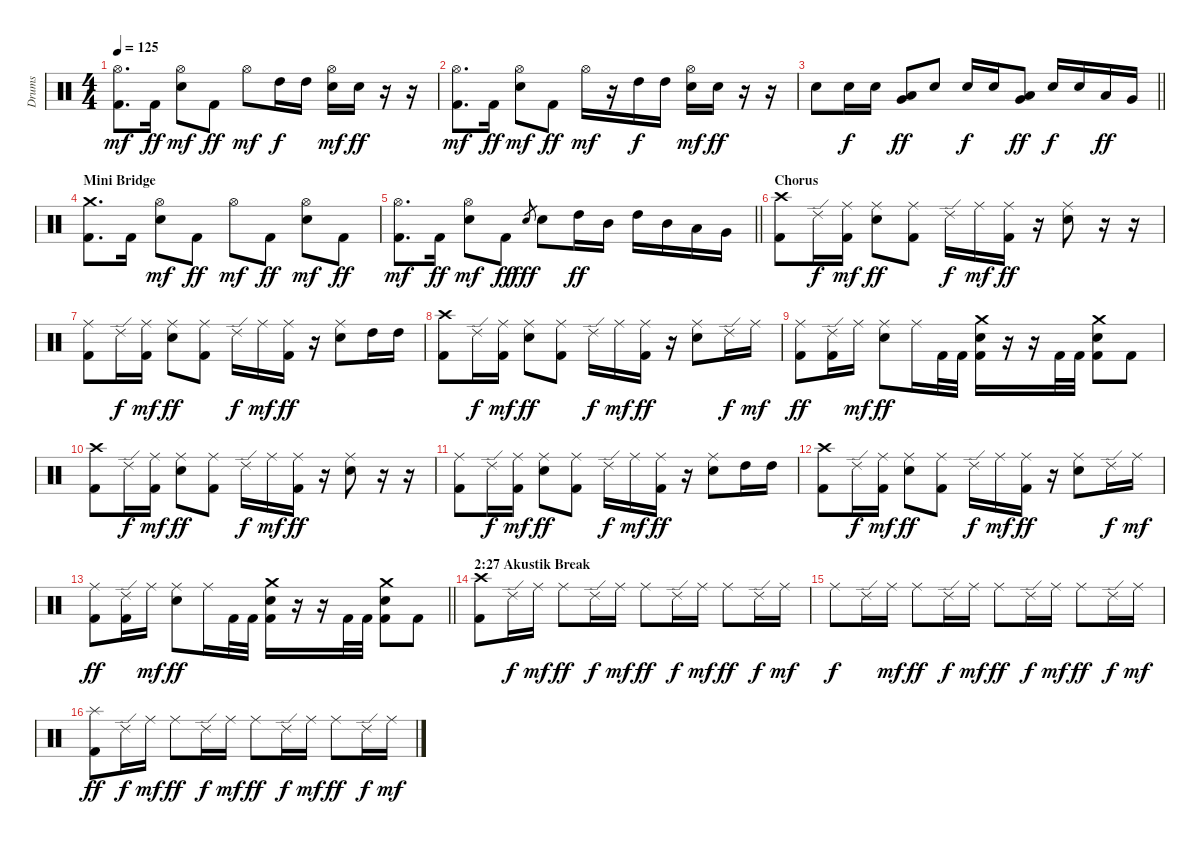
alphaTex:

\track ("Drums" "Drums") {instrument percussion}
\staff {score}
\articulation defaults
\ts (4 4)
\tempo 125
\clef neutral
\ks c
("Kick (hit) 2" "Hi-Hat (open)").8{d dy mf} "Kick (hit) 2".16{dy ff} ("Electric Snare (hit)" "Hi-Hat (open)").8{dy mf} "Kick (hit) 2".8{dy ff} "Hi-Hat (open)".8{dy mf} "High Tom (hit)".16{dy f} "High Tom (hit)".16 ("Electric Snare (hit)" "Hi-Hat (open)").16{dy mf} "Electric Snare (hit)".16{dy ff} r.16 r.16 |
("Kick (hit) 2" "Hi-Hat (open)").8{d dy mf} "Kick (hit) 2".16{dy ff} ("Electric Snare (hit)" "Hi-Hat (open)").8{dy mf} "Kick (hit) 2".8{dy ff} "Hi-Hat (open)".16{dy mf} r.16 "High Tom (hit)".16{dy f} "High Tom (hit)".16 ("Electric Snare (hit)" "Hi-Hat (open)").16{dy mf} "Electric Snare (hit)".16{dy ff} r.16 r.16 |
\barLineRight lightlight "Electric Snare (hit)".8 "Electric Snare (hit)".16{dy f} "Electric Snare (hit)".16
("Low Tom (hit)" "Very Low Tom (hit)").8{dy ff} "Electric Snare (hit)".8 "Electric Snare (hit)".16{dy f} "Electric Snare (hit)".16 ("Low Tom (hit)" "Very Low Tom (hit)").8{dy ff} "Electric Snare (hit)".16{dy f} "Electric Snare (hit)".16 "Low Tom (hit)".16{dy ff} "Very Low Tom (hit)".16 |
\section ("" "Mini Bridge")
("Kick (hit) 2" "Crash medium (hit)").8{d} "Kick (hit) 2".16 ("Electric Snare (hit)" "Hi-Hat (open)").8{dy mf} "Kick (hit) 2".8{dy ff} "Hi-Hat (open)".8{dy mf} "Kick (hit) 2".8{dy ff} ("Electric Snare (hit)" "Hi-Hat (open)").8{dy mf} "Kick (hit) 2".8{dy ff} |
\barLineRight lightlight
("Kick (hit) 2" "Hi-Hat (open)").8{d dy mf} "Kick (hit) 2".16{dy ff} ("Electric Snare (hit)" "Hi-Hat (open)").8{dy mf} "Kick (hit) 2".8{dy ff} "Electric Snare (hit)".8{gr dy fff} "Electric Snare (hit)".8 "High Tom (hit)".16{dy ff} "Mid Tom (hit)".16 "High Tom (hit)".16 "Mid Tom (hit)".16 "Low Tom (hit)".16 "Very Low Tom (hit)".16 |
\section ("" "Chorus")
("Kick (hit) 2" "Crash high (hit)").8 "Ride (edge) 2".16{dy f} ("Kick (hit) 2" "Ride (middle)").16{dy mf} ("Electric Snare (hit)" "Ride (middle)").8{dy ff} ("Kick (hit) 2" "Ride (middle)").8 "Ride (edge) 2".16{dy f} "Ride (middle)".16{dy mf} ("Kick (hit) 2" "Ride (middle)").16{dy ff} r.16 ("Electric Snare (hit)" "Ride (middle)").8 r.16 r.16 |
("Kick (hit) 2" "Ride (middle)").8 "Ride (edge) 2".16{dy f} ("Kick (hit) 2" "Ride (middle)").16{dy mf} ("Electric Snare (hit)" "Ride (middle)").8{dy ff} ("Kick (hit) 2" "Ride (middle)").8 "Ride (edge) 2".16{dy f} "Ride (middle)".16{dy mf} ("Kick (hit) 2" "Ride (middle)").16{dy ff} r.16 ("Electric Snare (hit)" "Ride (middle)").8 "High Tom (hit)".16 "High Tom (hit)".16 |
("Kick (hit) 2" "Crash high (hit)").8 "Ride (edge) 2".16{dy f} ("Kick (hit) 2" "Ride (middle)").16{dy mf} ("Electric Snare (hit)" "Ride (middle)").8{dy ff} ("Kick (hit) 2" "Ride (middle)").8 "Ride (edge) 2".16{dy f} "Ride (middle)".16{dy mf} ("Kick (hit) 2" "Ride (middle)").16{dy ff} r.16 ("Electric Snare (hit)" "Ride (middle)").8 "Ride (edge) 2".16{dy f} "Ride (middle)".16{dy mf} |
("Kick (hit) 2" "Ride (middle)").8{dy ff} ("Kick (hit) 2" "Ride (edge) 2").16 "Ride (middle)".16{dy mf} ("Electric Snare (hit)" "Ride (middle)").8{dy ff} "Ride (middle)".16 "Kick (hit) 2".32 "Kick (hit) 2".32 ("Kick (hit) 2" "Electric Snare (hit)" "Crash medium (hit)").16 r.16 r.16 "Kick (hit) 2".32 "Kick (hit) 2".32 ("Kick (hit) 2" "Electric Snare (hit)" "Crash medium (hit)").8 "Kick (hit) 2".8 |
("Kick (hit) 2" "Crash high (hit)").8 "Ride (edge) 2".16{dy f} ("Kick (hit) 2" "Ride (middle)").16{dy mf} ("Electric Snare (hit)" "Ride (middle)").8{dy ff} ("Kick (hit) 2" "Ride (middle)").8 "Ride (edge) 2".16{dy f} "Ride (middle)".16{dy mf} ("Kick (hit) 2" "Ride (middle)").16{dy ff} r.16 ("Electric Snare (hit)" "Ride (middle)").8 r.16 r.16 |
("Kick (hit) 2" "Ride (middle)").8 "Ride (edge) 2".16{dy f} ("Kick (hit) 2" "Ride (middle)").16{dy mf} ("Electric Snare (hit)" "Ride (middle)").8{dy ff} ("Kick (hit) 2" "Ride (middle)").8 "Ride (edge) 2".16{dy f} "Ride (middle)".16{dy mf} ("Kick (hit) 2" "Ride (middle)").16{dy ff} r.16 ("Electric Snare (hit)" "Ride (middle)").8 "High Tom (hit)".16 "High Tom (hit)".16 |
("Kick (hit) 2" "Crash high (hit)").8 "Ride (edge) 2".16{dy f} ("Kick (hit) 2" "Ride (middle)").16{dy mf} ("Electric Snare (hit)" "Ride (middle)").8{dy ff} ("Kick (hit) 2" "Ride (middle)").8 "Ride (edge) 2".16{dy f} "Ride (middle)".16{dy mf} ("Kick (hit) 2" "Ride (middle)").16{dy ff} r.16 ("Electric Snare (hit)" "Ride (middle)").8 "Ride (edge) 2".16{dy f} "Ride (middle)".16{dy mf} |
\barLineRight lightlight
("Kick (hit) 2" "Ride (middle)").8{dy ff} ("Kick (hit) 2" "Ride (edge) 2").16 "Ride (middle)".16{dy mf} ("Electric Snare (hit)" "Ride (middle)").8{dy ff} "Ride (middle)".16 "Kick (hit) 2".32 "Kick (hit) 2".32 ("Kick (hit) 2" "Electric Snare (hit)" "Crash medium (hit)").16 r.16 r.16 "Kick (hit) 2".32 "Kick (hit) 2".32 ("Kick (hit) 2" "Electric Snare (hit)" "Crash medium (hit)").8 "Kick (hit) 2".8 |
\section ("" "2:27 Akustik Break")
("Kick (hit) 2" "Crash high (hit)").8 "Ride (edge) 2".16{dy f} "Ride (middle)".16{dy mf} "Ride (middle)".8{dy ff} "Ride (edge) 2".16{dy f} "Ride (middle)".16{dy mf} "Ride (middle)".8{dy ff} "Ride (edge) 2".16{dy f} "Ride (middle)".16{dy mf} "Ride (middle)".8{dy ff} "Ride (edge) 2".16{dy f} "Ride (middle)".16{dy mf} |
"Ride (middle)".8{dy f} "Ride (edge) 2".16 "Ride (middle)".16{dy mf} "Ride (middle)".8{dy ff} "Ride (edge) 2".16{dy f} "Ride (middle)".16{dy mf} "Ride (middle)".8{dy ff} "Ride (edge) 2".16{dy f} "Ride (middle)".16{dy mf} "Ride (middle)".8{dy ff} "Ride (edge) 2".16{dy f} "Ride (middle)".16{dy mf} |
("Kick (hit) 2" "Splash (hit)").8{dy ff} "Ride (edge) 2".16{dy f} "Ride (middle)".16{dy mf} "Ride (middle)".8{dy ff} "Ride (edge) 2".16{dy f} "Ride (middle)".16{dy mf} "Ride (middle)".8{dy ff} "Ride (edge) 2".16{dy f} "Ride (middle)".16{dy mf} "Ride (middle)".8{dy ff} "Ride (edge) 2".16{dy f} "Ride (middle)".16{dy mf}
